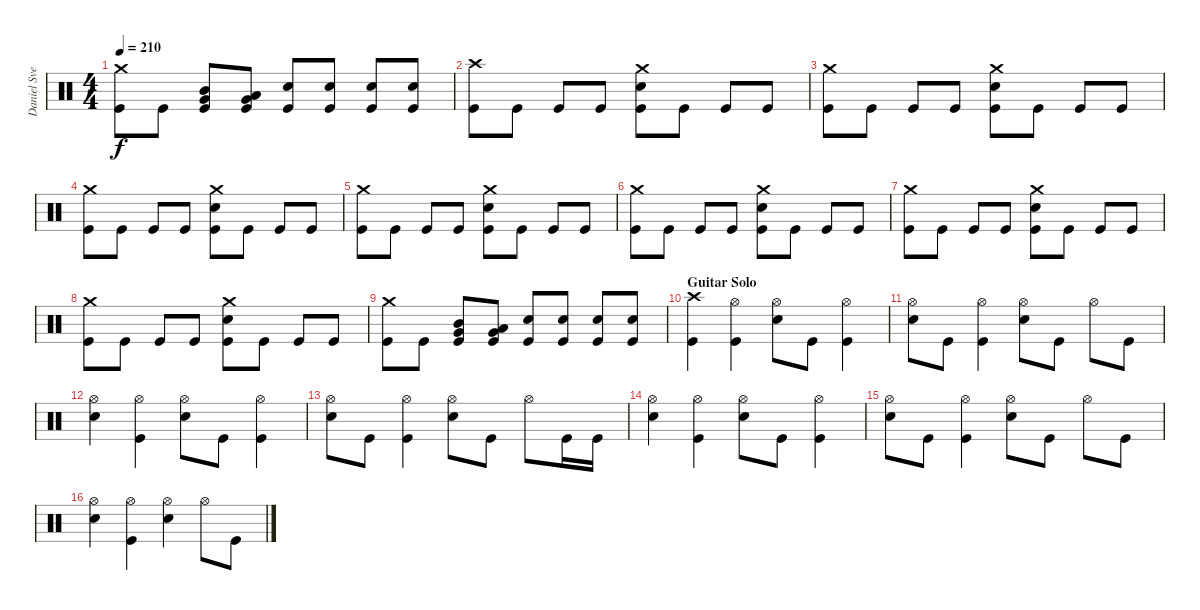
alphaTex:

\track ("Daniel Svensson" "Daniel Sve") {instrument percussion}
\staff {score}
\articulation defaults
\ts (4 4)
\tempo 210
\clef neutral
\ks c
("Crash medium (hit)" "Kick (hit)").8{dy f} "Kick (hit)".8 ("Very Low Tom (hit)" "Mid Tom (hit)" "Kick (hit)").8 ("Very Low Tom (hit)" "Low Tom (hit)" "Kick (hit)").8 ("Electric Snare (hit)" "Kick (hit)").8 ("Electric Snare (hit)" "Kick (hit)").8 ("Electric Snare (hit)" "Kick (hit)").8 ("Electric Snare (hit)" "Kick (hit)").8 |
("Crash high (hit)" "Kick (hit)").8 "Kick (hit)".8 "Kick (hit)".8 "Kick (hit)".8 ("Crash medium (hit)" "Electric Snare (hit)" "Kick (hit)").8 "Kick (hit)".8 "Kick (hit)".8 "Kick (hit)".8 |
("Crash medium (hit)" "Kick (hit)").8 "Kick (hit)".8 "Kick (hit)".8 "Kick (hit)".8 ("Crash medium (hit)" "Electric Snare (hit)" "Kick (hit)").8 "Kick (hit)".8 "Kick (hit)".8 "Kick (hit)".8 |
("Crash medium (hit)" "Kick (hit)").8 "Kick (hit)".8 "Kick (hit)".8 "Kick (hit)".8 ("Crash medium (hit)" "Electric Snare (hit)" "Kick (hit)").8 "Kick (hit)".8 "Kick (hit)".8 "Kick (hit)".8 |
("Crash medium (hit)" "Kick (hit)").8 "Kick (hit)".8 "Kick (hit)".8 "Kick (hit)".8 ("Crash medium (hit)" "Electric Snare (hit)" "Kick (hit)").8 "Kick (hit)".8 "Kick (hit)".8 "Kick (hit)".8 |
("Crash medium (hit)" "Kick (hit)").8 "Kick (hit)".8 "Kick (hit)".8 "Kick (hit)".8 ("Crash medium (hit)" "Electric Snare (hit)" "Kick (hit)").8 "Kick (hit)".8 "Kick (hit)".8 "Kick (hit)".8 |
("Crash medium (hit)" "Kick (hit)").8 "Kick (hit)".8 "Kick (hit)".8 "Kick (hit)".8 ("Crash medium (hit)" "Electric Snare (hit)" "Kick (hit)").8 "Kick (hit)".8 "Kick (hit)".8 "Kick (hit)".8 |
("Crash medium (hit)" "Kick (hit)").8 "Kick (hit)".8 "Kick (hit)".8 "Kick (hit)".8 ("Crash medium (hit)" "Electric Snare (hit)" "Kick (hit)").8 "Kick (hit)".8 "Kick (hit)".8 "Kick (hit)".8 |
("Crash medium (hit)" "Kick (hit)").8 "Kick (hit)".8 ("Very Low Tom (hit)" "Mid Tom (hit)" "Kick (hit)").8 ("Very Low Tom (hit)" "Low Tom (hit)" "Kick (hit)").8 ("Electric Snare (hit)" "Kick (hit)").8 ("Electric Snare (hit)" "Kick (hit)").8 ("Electric Snare (hit)" "Kick (hit)").8 ("Electric Snare (hit)" "Kick (hit)").8 |
\section ("" "Guitar Solo")
("Crash high (hit)" "Kick (hit)").4 ("Hi-Hat (open)" "Kick (hit)").4 ("Hi-Hat (open)" "Electric Snare (hit)").8 "Kick (hit)".8 ("Hi-Hat (open)" "Kick (hit)").4 |
("Hi-Hat (open)" "Electric Snare (hit)").8 "Kick (hit)".8 ("Hi-Hat (open)" "Kick (hit)").4 ("Hi-Hat (open)" "Electric Snare (hit)").8 "Kick (hit)".8 "Hi-Hat (open)".8 "Kick (hit)".8 |
("Hi-Hat (open)" "Electric Snare (hit)").4 ("Hi-Hat (open)" "Kick (hit)").4 ("Hi-Hat (open)" "Electric Snare (hit)").8 "Kick (hit)".8 ("Hi-Hat (open)" "Kick (hit)").4 |
("Hi-Hat (open)" "Electric Snare (hit)").8 "Kick (hit)".8 ("Hi-Hat (open)" "Kick (hit)").4 ("Hi-Hat (open)" "Electric Snare (hit)").8 "Kick (hit)".8 "Hi-Hat (open)".8 "Kick (hit)".16 "Kick (hit)".16 |
("Hi-Hat (open)" "Electric Snare (hit)").4 ("Hi-Hat (open)" "Kick (hit)").4 ("Hi-Hat (open)" "Electric Snare (hit)").8 "Kick (hit)".8 ("Hi-Hat (open)" "Kick (hit)").4 |
("Hi-Hat (open)" "Electric Snare (hit)").8 "Kick (hit)".8 ("Hi-Hat (open)" "Kick (hit)").4 ("Hi-Hat (open)" "Electric Snare (hit)").8 "Kick (hit)".8 "Hi-Hat (open)".8 "Kick (hit)".8 |
("Hi-Hat (open)" "Electric Snare (hit)").4 ("Hi-Hat (open)" "Kick (hit)").4 ("Hi-Hat (open)" "Electric Snare (hit)").4 "Hi-Hat (open)".8 "Kick (hit)".8
